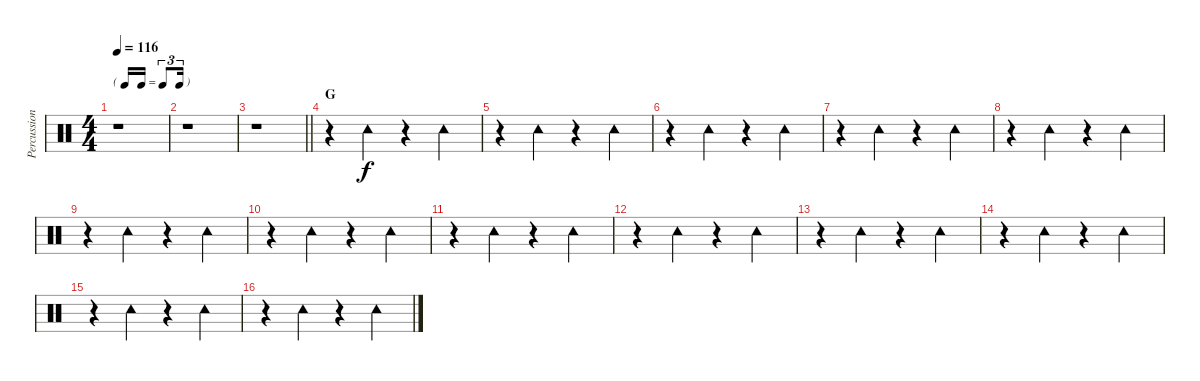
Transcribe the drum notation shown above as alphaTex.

\track ("Percussion" "Percussion") {instrument percussion}
\staff {score}
\articulation defaults
\ts (4 4)
\tf triplet16th
\tempo 116
\clef neutral
\ks c
r.1{dy f} |
r.1 |
\barLineRight lightlight
r.1 |
\section ("" "G")
r.4 "Tambourine (hit)".4 r.4 "Tambourine (hit)".4 |
r.4 "Tambourine (hit)".4 r.4 "Tambourine (hit)".4 |
r.4 "Tambourine (hit)".4 r.4 "Tambourine (hit)".4 |
r.4 "Tambourine (hit)".4 r.4 "Tambourine (hit)".4 |
r.4 "Tambourine (hit)".4 r.4 "Tambourine (hit)".4 |
r.4 "Tambourine (hit)".4 r.4 "Tambourine (hit)".4 |
r.4 "Tambourine (hit)".4 r.4 "Tambourine (hit)".4 |
r.4 "Tambourine (hit)".4 r.4 "Tambourine (hit)".4 |
r.4 "Tambourine (hit)".4 r.4 "Tambourine (hit)".4 |
r.4 "Tambourine (hit)".4 r.4 "Tambourine (hit)".4 |
r.4 "Tambourine (hit)".4 r.4 "Tambourine (hit)".4 |
r.4 "Tambourine (hit)".4 r.4 "Tambourine (hit)".4 |
r.4 "Tambourine (hit)".4 r.4 "Tambourine (hit)".4
